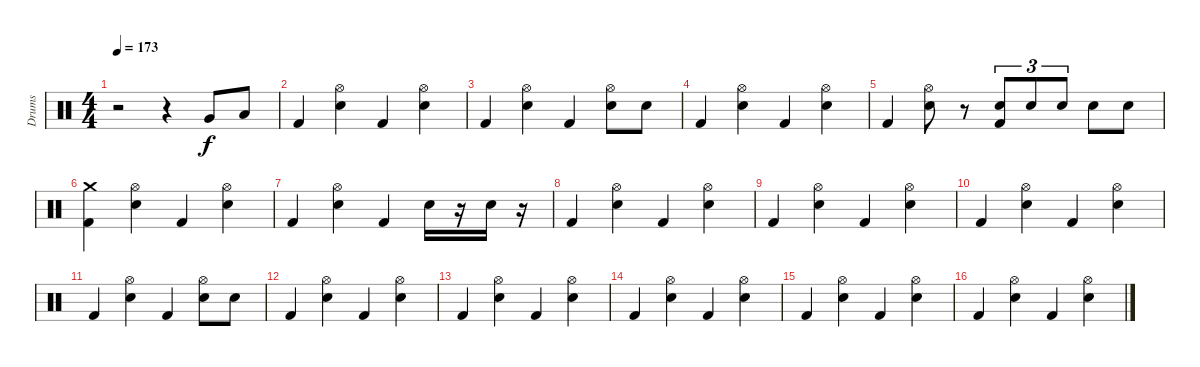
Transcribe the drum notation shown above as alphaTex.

\track ("Drums" "Drums") {instrument percussion}
\staff {score}
\articulation defaults
\ts (4 4)
\tempo 173
\clef neutral
\ks c
r.2{dy f} r.4 "Very Low Tom (hit)".8 "Low Floor Tom (hit)".8 |
"Kick (hit) 2".4 ("Electric Snare (hit)" "Hi-Hat (open)").4 "Kick (hit) 2".4 ("Electric Snare (hit)" "Hi-Hat (open)").4 |
"Kick (hit) 2".4 ("Electric Snare (hit)" "Hi-Hat (open)").4 "Kick (hit) 2".4 ("Electric Snare (hit)" "Hi-Hat (open)").8 "Electric Snare (hit)".8 |
"Kick (hit) 2".4 ("Electric Snare (hit)" "Hi-Hat (open)").4 "Kick (hit) 2".4 ("Electric Snare (hit)" "Hi-Hat (open)").4 |
"Kick (hit) 2".4 ("Hi-Hat (open)" "Electric Snare (hit)").8 r.8 ("Electric Snare (hit)" "Kick (hit) 2").8{tu (3 2)} "Electric Snare (hit)".8{tu (3 2)} "Electric Snare (hit)".8{tu (3 2)} "Electric Snare (hit)".8 "Electric Snare (hit)".8 |
("Kick (hit) 2" "Crash medium (hit)").4 ("Electric Snare (hit)" "Hi-Hat (open)").4 "Kick (hit) 2".4 ("Electric Snare (hit)" "Hi-Hat (open)").4 |
"Kick (hit) 2".4 ("Electric Snare (hit)" "Hi-Hat (open)").4 "Kick (hit) 2".4 "Electric Snare (hit)".16 r.16 "Electric Snare (hit)".16 r.16 |
"Kick (hit) 2".4 ("Electric Snare (hit)" "Hi-Hat (open)").4 "Kick (hit) 2".4 ("Electric Snare (hit)" "Hi-Hat (open)").4 |
"Kick (hit) 2".4 ("Electric Snare (hit)" "Hi-Hat (open)").4 "Kick (hit) 2".4 ("Electric Snare (hit)" "Hi-Hat (open)").4 |
"Kick (hit) 2".4 ("Electric Snare (hit)" "Hi-Hat (open)").4 "Kick (hit) 2".4 ("Electric Snare (hit)" "Hi-Hat (open)").4 |
"Kick (hit) 2".4 ("Electric Snare (hit)" "Hi-Hat (open)").4 "Kick (hit) 2".4 ("Electric Snare (hit)" "Hi-Hat (open)").8 "Electric Snare (hit)".8 |
"Kick (hit) 2".4 ("Electric Snare (hit)" "Hi-Hat (open)").4 "Kick (hit) 2".4 ("Electric Snare (hit)" "Hi-Hat (open)").4 |
"Kick (hit) 2".4 ("Electric Snare (hit)" "Hi-Hat (open)").4 "Kick (hit) 2".4 ("Electric Snare (hit)" "Hi-Hat (open)").4 |
"Kick (hit) 2".4 ("Electric Snare (hit)" "Hi-Hat (open)").4 "Kick (hit) 2".4 ("Electric Snare (hit)" "Hi-Hat (open)").4 |
"Kick (hit) 2".4 ("Electric Snare (hit)" "Hi-Hat (open)").4 "Kick (hit) 2".4 ("Electric Snare (hit)" "Hi-Hat (open)").4 |
"Kick (hit) 2".4 ("Electric Snare (hit)" "Hi-Hat (open)").4 "Kick (hit) 2".4 ("Electric Snare (hit)" "Hi-Hat (open)").4
